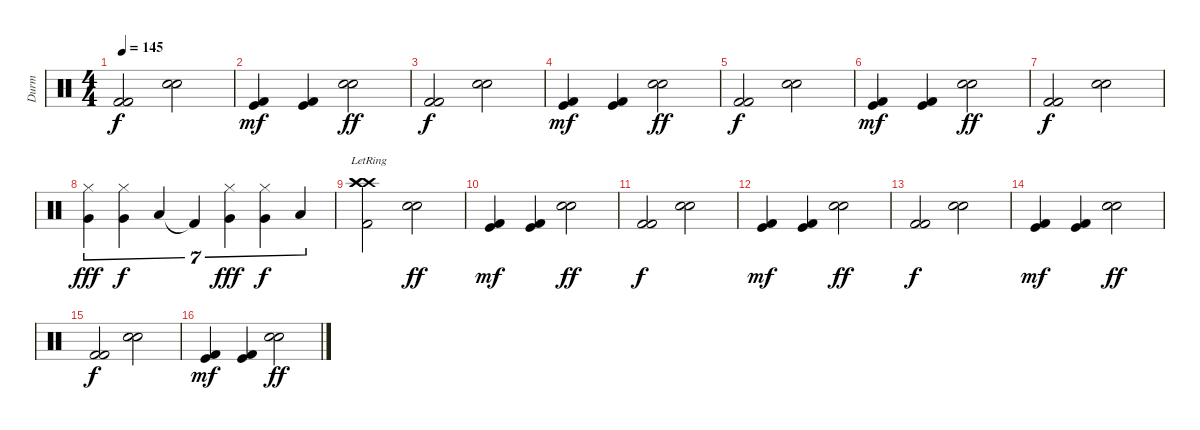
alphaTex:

\track ("Durm" "Durm") {instrument percussion}
\staff {score}
\articulation defaults
\ts (4 4)
\tempo 145
\clef neutral
\ks c
("Kick (hit) 2" "Kick (hit) 2").2{dy f} ("Snare (hit) 2" "Snare (hit) 2").2 |
("Kick (hit)" "Kick (hit) 2").4{dy mf} ("Kick (hit)" "Kick (hit) 2").4 ("Snare (hit) 2" "Snare (hit) 2").2{dy ff} |
("Kick (hit) 2" "Kick (hit) 2").2{dy f} ("Snare (hit) 2" "Snare (hit) 2").2 |
("Kick (hit)" "Kick (hit) 2").4{dy mf} ("Kick (hit)" "Kick (hit) 2").4 ("Snare (hit) 2" "Snare (hit) 2").2{dy ff} |
("Kick (hit) 2" "Kick (hit) 2").2{dy f} ("Snare (hit) 2" "Snare (hit) 2").2 |
("Kick (hit)" "Kick (hit) 2").4{dy mf} ("Kick (hit)" "Kick (hit) 2").4 ("Snare (hit) 2" "Snare (hit) 2").2{dy ff} |
("Kick (hit) 2" "Kick (hit) 2").2{dy f} ("Snare (hit) 2" "Snare (hit) 2").2 |
("Very Low Tom (hit)" "Hi-Hat (closed)").4{tu (7 4) dy fff} ("Very Low Tom (hit)" "Hi-Hat (closed)").4{tu (7 4) dy f} "Low Tom (hit)".4{tu (7 4)} "Kick (hit) 2"{t}.4{tu (7 4)} ("Very Low Tom (hit)" "Hi-Hat (closed)").4{tu (7 4) dy fff} ("Very Low Tom (hit)" "Hi-Hat (closed)").4{tu (7 4) dy f} "Low Tom (hit)".4{tu (7 4)} |
("Crash high (hit)" "Kick (hit) 2" "Crash high (hit)"{lr} "Crash high (hit)"{lr}).2 ("Snare (hit) 2" "Snare (hit) 2").2{dy ff} |
("Kick (hit)" "Kick (hit) 2").4{dy mf} ("Kick (hit)" "Kick (hit) 2").4 ("Snare (hit) 2" "Snare (hit) 2").2{dy ff} |
("Kick (hit) 2" "Kick (hit) 2").2{dy f} ("Snare (hit) 2" "Snare (hit) 2").2 |
("Kick (hit)" "Kick (hit) 2").4{dy mf} ("Kick (hit)" "Kick (hit) 2").4 ("Snare (hit) 2" "Snare (hit) 2").2{dy ff} |
("Kick (hit) 2" "Kick (hit) 2").2{dy f} ("Snare (hit) 2" "Snare (hit) 2").2 |
("Kick (hit)" "Kick (hit) 2").4{dy mf} ("Kick (hit)" "Kick (hit) 2").4 ("Snare (hit) 2" "Snare (hit) 2").2{dy ff} |
("Kick (hit) 2" "Kick (hit) 2").2{dy f} ("Snare (hit) 2" "Snare (hit) 2").2 |
("Kick (hit)" "Kick (hit) 2").4{dy mf} ("Kick (hit)" "Kick (hit) 2").4 ("Snare (hit) 2" "Snare (hit) 2").2{dy ff}
